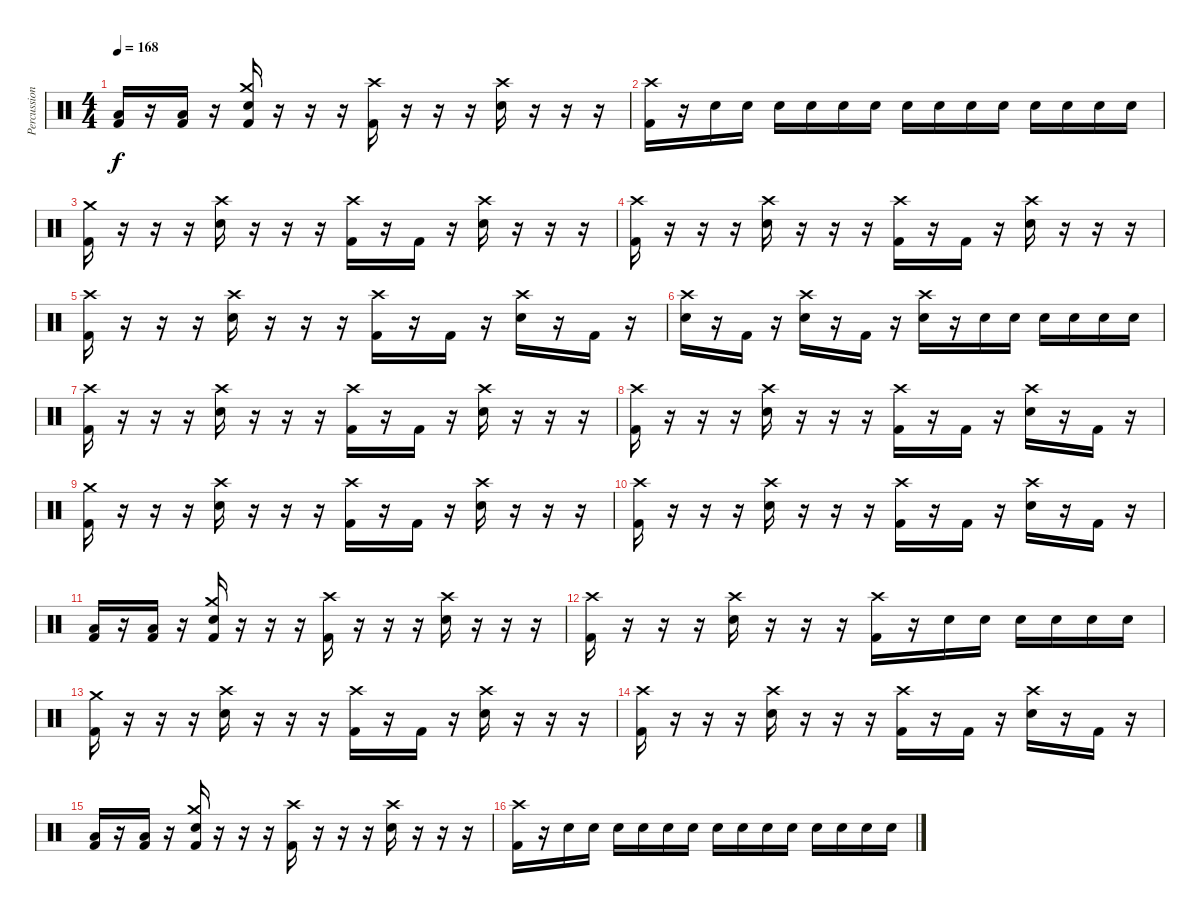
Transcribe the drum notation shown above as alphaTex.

\track ("Percussion" "Percussion") {instrument percussion}
\staff {score}
\articulation defaults
\ts (4 4)
\tempo 168
\clef neutral
\ks c
("Low Floor Tom (hit)" "Kick (hit) 2").16{dy f} r.16 ("Low Floor Tom (hit)" "Kick (hit) 2").16 r.16 ("Crash medium (hit)" "Snare (hit) 2" "Kick (hit) 2").16 r.16 r.16 r.16 ("Crash high (hit)" "Kick (hit) 2").16 r.16 r.16 r.16 ("Crash high (hit)" "Snare (hit) 2").16 r.16 r.16 r.16 |
("Crash high (hit)" "Kick (hit) 2").16 r.16 "Snare (hit) 2".16 "Snare (hit) 2".16 "Snare (hit) 2".16 "Snare (hit) 2".16 "Snare (hit) 2".16 "Snare (hit) 2".16 "Snare (hit) 2".16 "Snare (hit) 2".16 "Snare (hit) 2".16 "Snare (hit) 2".16 "Snare (hit) 2".16 "Snare (hit) 2".16 "Snare (hit) 2".16 "Snare (hit) 2".16 |
("Crash medium (hit)" "Kick (hit) 2").16 r.16 r.16 r.16 ("Crash high (hit)" "Snare (hit) 2").16 r.16 r.16 r.16 ("Crash high (hit)" "Kick (hit) 2").16 r.16 "Kick (hit) 2".16 r.16 ("Crash high (hit)" "Snare (hit) 2").16 r.16 r.16 r.16 |
("Crash high (hit)" "Kick (hit) 2").16 r.16 r.16 r.16 ("Crash high (hit)" "Snare (hit) 2").16 r.16 r.16 r.16 ("Crash high (hit)" "Kick (hit) 2").16 r.16 "Kick (hit) 2".16 r.16 ("Crash high (hit)" "Snare (hit) 2").16 r.16 r.16 r.16 |
("Crash high (hit)" "Kick (hit) 2").16 r.16 r.16 r.16 ("Crash high (hit)" "Snare (hit) 2").16 r.16 r.16 r.16 ("Crash high (hit)" "Kick (hit) 2").16 r.16 "Kick (hit) 2".16 r.16 ("Crash high (hit)" "Snare (hit) 2").16 r.16 "Kick (hit) 2".16 r.16 |
("Crash high (hit)" "Snare (hit) 2").16 r.16 "Kick (hit) 2".16 r.16 ("Crash high (hit)" "Snare (hit) 2").16 r.16 "Kick (hit) 2".16 r.16 ("Crash high (hit)" "Snare (hit) 2").16 r.16 "Snare (hit) 2".16 "Snare (hit) 2".16 "Snare (hit) 2".16 "Snare (hit) 2".16 "Snare (hit) 2".16 "Snare (hit) 2".16 |
("Crash high (hit)" "Kick (hit) 2").16 r.16 r.16 r.16 ("Crash high (hit)" "Snare (hit) 2").16 r.16 r.16 r.16 ("Crash high (hit)" "Kick (hit) 2").16 r.16 "Kick (hit) 2".16 r.16 ("Crash high (hit)" "Snare (hit) 2").16 r.16 r.16 r.16 |
("Crash high (hit)" "Kick (hit) 2").16 r.16 r.16 r.16 ("Crash high (hit)" "Snare (hit) 2").16 r.16 r.16 r.16 ("Crash high (hit)" "Kick (hit) 2").16 r.16 "Kick (hit) 2".16 r.16 ("Crash high (hit)" "Snare (hit) 2").16 r.16 "Kick (hit) 2".16 r.16 |
("Crash medium (hit)" "Kick (hit) 2").16 r.16 r.16 r.16 ("Crash high (hit)" "Snare (hit) 2").16 r.16 r.16 r.16 ("Crash high (hit)" "Kick (hit) 2").16 r.16 "Kick (hit) 2".16 r.16 ("Crash high (hit)" "Snare (hit) 2").16 r.16 r.16 r.16 |
("Crash high (hit)" "Kick (hit) 2").16 r.16 r.16 r.16 ("Crash high (hit)" "Snare (hit) 2").16 r.16 r.16 r.16 ("Crash high (hit)" "Kick (hit) 2").16 r.16 "Kick (hit) 2".16 r.16 ("Crash high (hit)" "Snare (hit) 2").16 r.16 "Kick (hit) 2".16 r.16 |
("Low Floor Tom (hit)" "Kick (hit) 2").16 r.16 ("Low Floor Tom (hit)" "Kick (hit) 2").16 r.16 ("Crash medium (hit)" "Snare (hit) 2" "Kick (hit) 2").16 r.16 r.16 r.16 ("Crash high (hit)" "Kick (hit) 2").16 r.16 r.16 r.16 ("Crash high (hit)" "Snare (hit) 2").16 r.16 r.16 r.16 |
("Crash high (hit)" "Kick (hit) 2").16 r.16 r.16 r.16 ("Crash high (hit)" "Snare (hit) 2").16 r.16 r.16 r.16 ("Crash high (hit)" "Kick (hit) 2").16 r.16 "Snare (hit) 2".16 "Snare (hit) 2".16 "Snare (hit) 2".16 "Snare (hit) 2".16 "Snare (hit) 2".16 "Snare (hit) 2".16 |
("Crash medium (hit)" "Kick (hit) 2").16 r.16 r.16 r.16 ("Crash high (hit)" "Snare (hit) 2").16 r.16 r.16 r.16 ("Crash high (hit)" "Kick (hit) 2").16 r.16 "Kick (hit) 2".16 r.16 ("Crash high (hit)" "Snare (hit) 2").16 r.16 r.16 r.16 |
("Crash high (hit)" "Kick (hit) 2").16 r.16 r.16 r.16 ("Crash high (hit)" "Snare (hit) 2").16 r.16 r.16 r.16 ("Crash high (hit)" "Kick (hit) 2").16 r.16 "Kick (hit) 2".16 r.16 ("Crash high (hit)" "Snare (hit) 2").16 r.16 "Kick (hit) 2".16 r.16 |
("Low Floor Tom (hit)" "Kick (hit) 2").16 r.16 ("Low Floor Tom (hit)" "Kick (hit) 2").16 r.16 ("Crash medium (hit)" "Snare (hit) 2" "Kick (hit) 2").16 r.16 r.16 r.16 ("Crash high (hit)" "Kick (hit) 2").16 r.16 r.16 r.16 ("Crash high (hit)" "Snare (hit) 2").16 r.16 r.16 r.16 |
("Crash high (hit)" "Kick (hit) 2").16 r.16 "Snare (hit) 2".16 "Snare (hit) 2".16 "Snare (hit) 2".16 "Snare (hit) 2".16 "Snare (hit) 2".16 "Snare (hit) 2".16 "Snare (hit) 2".16 "Snare (hit) 2".16 "Snare (hit) 2".16 "Snare (hit) 2".16 "Snare (hit) 2".16 "Snare (hit) 2".16 "Snare (hit) 2".16 "Snare (hit) 2".16
